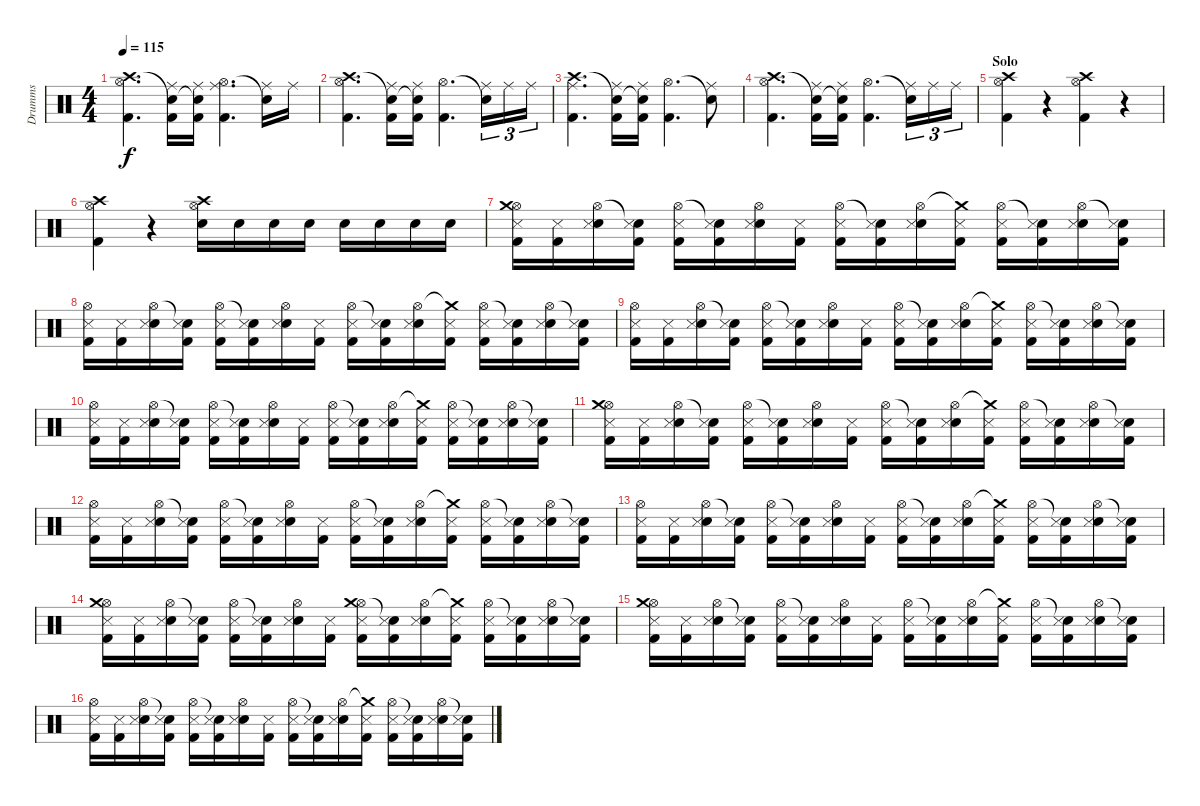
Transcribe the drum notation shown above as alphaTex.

\track ("Drumms" "Drumms") {instrument percussion}
\staff {score}
\articulation defaults
\ts (4 4)
\tempo 115
\clef neutral
\ks c
("Crash high (hit)" "Hi-Hat (open)" "Kick (hit) 2").4{d dy f} ("Snare (hit)"{t} "Kick (hit) 2" "Ride (middle)").16 ("Snare (hit)"{t} "Kick (hit) 2" "Ride (middle)").16 ("Hi-Hat (open)" "Kick (hit) 2" "Ride (middle)").4{d} ("Snare (hit)"{t} "Ride (middle)").16 "Ride (middle)".16 |
("Crash high (hit)" "Hi-Hat (open)" "Kick (hit) 2").4{d} ("Snare (hit)"{t} "Kick (hit) 2" "Ride (middle)").16 ("Snare (hit)"{t} "Kick (hit) 2" "Ride (middle)").16 ("Hi-Hat (open)" "Kick (hit) 2").4{d} ("Snare (hit)"{t} "Ride (middle)").16{tu (3 2)} "Ride (middle)".16{tu (3 2)} "Ride (middle)".16{tu (3 2)} |
("Crash high (hit)" "Ride (middle)" "Kick (hit) 2").4{d} ("Snare (hit)"{t} "Kick (hit) 2" "Ride (middle)").16 ("Snare (hit)"{t} "Kick (hit) 2" "Ride (middle)").16 ("Hi-Hat (open)" "Kick (hit) 2").4{d} ("Snare (hit)"{t} "Ride (middle)").8 |
("Crash high (hit)" "Hi-Hat (open)" "Kick (hit) 2").4{d} ("Snare (hit)"{t} "Kick (hit) 2" "Ride (middle)").16 ("Snare (hit)"{t} "Kick (hit) 2" "Ride (middle)").16 ("Hi-Hat (open)" "Kick (hit) 2").4{d} ("Snare (hit)"{t} "Ride (middle)").16{tu (3 2)} "Ride (middle)".16{tu (3 2)} "Ride (middle)".16{tu (3 2)} |
\section ("" "Solo")
("Hi-Hat (open)" "Crash high (hit)" "Kick (hit) 2").4 r.4 ("Hi-Hat (open)" "Crash high (hit)" "Kick (hit) 2").4 r.4 |
("Crash high (hit)" "Hi-Hat (open)" "Kick (hit) 2").4 r.4 ("Crash high (hit)" "Hi-Hat (open)" "Electric Snare (hit)").16 "Electric Snare (hit)".16 "Electric Snare (hit)".16 "Electric Snare (hit)".16 "Electric Snare (hit)".16 "Electric Snare (hit)".16 "Snare (hit) 2".16 "Snare (hit) 2".16 |
("Hi-Hat (open)" "Crash medium (hit)" "Kick (hit) 2" "Snare (side stick) 3").16 ("Kick (hit) 2" "Snare (side stick) 3").16 ("Hi-Hat (open)" "Electric Snare (hit)" "Snare (side stick) 3").16 ("Snare (hit)"{t} "Kick (hit) 2" "Snare (side stick) 3").16 ("Hi-Hat (open)" "Kick (hit) 2" "Snare (side stick) 3").16 ("Snare (hit)"{t} "Kick (hit) 2" "Snare (side stick) 3").16 ("Hi-Hat (open)" "Electric Snare (hit)" "Snare (side stick) 3").16 ("Kick (hit) 2" "Snare (side stick) 3").16 ("Hi-Hat (open)" "Kick (hit) 2" "Snare (side stick) 3").16 ("Snare (hit)"{t} "Kick (hit) 2" "Snare (side stick) 3").16 ("Hi-Hat (open)" "Electric Snare (hit)" "Snare (side stick) 3").16 ("Crash medium (hit)"{t} "Kick (hit) 2" "Snare (side stick) 3").16 ("Hi-Hat (open)" "Kick (hit) 2" "Snare (side stick) 3").16 ("Snare (hit)"{t} "Kick (hit) 2" "Snare (side stick) 3").16 ("Hi-Hat (open)" "Electric Snare (hit)" "Snare (side stick) 3").16 ("Snare (hit)"{t} "Kick (hit) 2" "Snare (side stick) 3").16 |
("Hi-Hat (open)" "Kick (hit) 2" "Snare (side stick) 3").16 ("Kick (hit) 2" "Snare (side stick) 3").16 ("Hi-Hat (open)" "Electric Snare (hit)" "Snare (side stick) 3").16 ("Snare (hit)"{t} "Kick (hit) 2" "Snare (side stick) 3").16 ("Hi-Hat (open)" "Kick (hit) 2" "Snare (side stick) 3").16 ("Snare (hit)"{t} "Kick (hit) 2" "Snare (side stick) 3").16 ("Hi-Hat (open)" "Electric Snare (hit)" "Snare (side stick) 3").16 ("Kick (hit) 2" "Snare (side stick) 3").16 ("Hi-Hat (open)" "Kick (hit) 2" "Snare (side stick) 3").16 ("Snare (hit)"{t} "Kick (hit) 2" "Snare (side stick) 3").16 ("Hi-Hat (open)" "Electric Snare (hit)" "Snare (side stick) 3").16 ("Crash medium (hit)"{t} "Kick (hit) 2" "Snare (side stick) 3").16 ("Hi-Hat (open)" "Kick (hit) 2" "Snare (side stick) 3").16 ("Snare (hit)"{t} "Kick (hit) 2" "Snare (side stick) 3").16 ("Hi-Hat (open)" "Electric Snare (hit)" "Snare (side stick) 3").16 ("Snare (hit)"{t} "Kick (hit) 2" "Snare (side stick) 3").16 |
("Hi-Hat (open)" "Kick (hit) 2" "Snare (side stick) 3").16 ("Kick (hit) 2" "Snare (side stick) 3").16 ("Hi-Hat (open)" "Electric Snare (hit)" "Snare (side stick) 3").16 ("Snare (hit)"{t} "Kick (hit) 2" "Snare (side stick) 3").16 ("Hi-Hat (open)" "Kick (hit) 2" "Snare (side stick) 3").16 ("Snare (hit)"{t} "Kick (hit) 2" "Snare (side stick) 3").16 ("Hi-Hat (open)" "Electric Snare (hit)" "Snare (side stick) 3").16 ("Kick (hit) 2" "Snare (side stick) 3").16 ("Hi-Hat (open)" "Kick (hit) 2" "Snare (side stick) 3").16 ("Snare (hit)"{t} "Kick (hit) 2" "Snare (side stick) 3").16 ("Hi-Hat (open)" "Electric Snare (hit)" "Snare (side stick) 3").16 ("Crash medium (hit)"{t} "Kick (hit) 2" "Snare (side stick) 3").16 ("Hi-Hat (open)" "Kick (hit) 2" "Snare (side stick) 3").16 ("Snare (hit)"{t} "Kick (hit) 2" "Snare (side stick) 3").16 ("Hi-Hat (open)" "Electric Snare (hit)" "Snare (side stick) 3").16 ("Snare (hit)"{t} "Kick (hit) 2" "Snare (side stick) 3").16 |
("Hi-Hat (open)" "Kick (hit) 2" "Snare (side stick) 3").16 ("Kick (hit) 2" "Snare (side stick) 3").16 ("Hi-Hat (open)" "Electric Snare (hit)" "Snare (side stick) 3").16 ("Snare (hit)"{t} "Kick (hit) 2" "Snare (side stick) 3").16 ("Hi-Hat (open)" "Kick (hit) 2" "Snare (side stick) 3").16 ("Snare (hit)"{t} "Kick (hit) 2" "Snare (side stick) 3").16 ("Hi-Hat (open)" "Electric Snare (hit)" "Snare (side stick) 3").16 ("Kick (hit) 2" "Snare (side stick) 3").16 ("Hi-Hat (open)" "Kick (hit) 2" "Snare (side stick) 3").16 ("Snare (hit)"{t} "Kick (hit) 2" "Snare (side stick) 3").16 ("Hi-Hat (open)" "Electric Snare (hit)" "Snare (side stick) 3").16 ("Crash medium (hit)"{t} "Kick (hit) 2" "Snare (side stick) 3").16 ("Hi-Hat (open)" "Kick (hit) 2" "Snare (side stick) 3").16 ("Snare (hit)"{t} "Kick (hit) 2" "Snare (side stick) 3").16 ("Hi-Hat (open)" "Electric Snare (hit)" "Snare (side stick) 3").16 ("Snare (hit)"{t} "Kick (hit) 2" "Snare (side stick) 3").16 |
("Hi-Hat (open)" "Crash medium (hit)" "Kick (hit) 2" "Snare (side stick) 3").16 ("Kick (hit) 2" "Snare (side stick) 3").16 ("Hi-Hat (open)" "Electric Snare (hit)" "Snare (side stick) 3").16 ("Snare (hit)"{t} "Kick (hit) 2" "Snare (side stick) 3").16 ("Hi-Hat (open)" "Kick (hit) 2" "Snare (side stick) 3").16 ("Snare (hit)"{t} "Kick (hit) 2" "Snare (side stick) 3").16 ("Hi-Hat (open)" "Electric Snare (hit)" "Snare (side stick) 3").16 ("Kick (hit) 2" "Snare (side stick) 3").16 ("Hi-Hat (open)" "Kick (hit) 2" "Snare (side stick) 3").16 ("Snare (hit)"{t} "Kick (hit) 2" "Snare (side stick) 3").16 ("Hi-Hat (open)" "Electric Snare (hit)" "Snare (side stick) 3").16 ("Crash medium (hit)"{t} "Kick (hit) 2" "Snare (side stick) 3").16 ("Hi-Hat (open)" "Kick (hit) 2" "Snare (side stick) 3").16 ("Snare (hit)"{t} "Kick (hit) 2" "Snare (side stick) 3").16 ("Hi-Hat (open)" "Electric Snare (hit)" "Snare (side stick) 3").16 ("Snare (hit)"{t} "Kick (hit) 2" "Snare (side stick) 3").16 |
("Hi-Hat (open)" "Kick (hit) 2" "Snare (side stick) 3").16 ("Kick (hit) 2" "Snare (side stick) 3").16 ("Hi-Hat (open)" "Electric Snare (hit)" "Snare (side stick) 3").16 ("Snare (hit)"{t} "Kick (hit) 2" "Snare (side stick) 3").16 ("Hi-Hat (open)" "Kick (hit) 2" "Snare (side stick) 3").16 ("Snare (hit)"{t} "Kick (hit) 2" "Snare (side stick) 3").16 ("Hi-Hat (open)" "Electric Snare (hit)" "Snare (side stick) 3").16 ("Kick (hit) 2" "Snare (side stick) 3").16 ("Hi-Hat (open)" "Kick (hit) 2" "Snare (side stick) 3").16 ("Snare (hit)"{t} "Kick (hit) 2" "Snare (side stick) 3").16 ("Hi-Hat (open)" "Electric Snare (hit)" "Snare (side stick) 3").16 ("Crash medium (hit)"{t} "Kick (hit) 2" "Snare (side stick) 3").16 ("Hi-Hat (open)" "Kick (hit) 2" "Snare (side stick) 3").16 ("Snare (hit)"{t} "Kick (hit) 2" "Snare (side stick) 3").16 ("Hi-Hat (open)" "Electric Snare (hit)" "Snare (side stick) 3").16 ("Snare (hit)"{t} "Kick (hit) 2" "Snare (side stick) 3").16 |
("Hi-Hat (open)" "Kick (hit) 2" "Snare (side stick) 3").16 ("Kick (hit) 2" "Snare (side stick) 3").16 ("Hi-Hat (open)" "Electric Snare (hit)" "Snare (side stick) 3").16 ("Snare (hit)"{t} "Kick (hit) 2" "Snare (side stick) 3").16 ("Hi-Hat (open)" "Kick (hit) 2" "Snare (side stick) 3").16 ("Snare (hit)"{t} "Kick (hit) 2" "Snare (side stick) 3").16 ("Hi-Hat (open)" "Electric Snare (hit)" "Snare (side stick) 3").16 ("Kick (hit) 2" "Snare (side stick) 3").16 ("Hi-Hat (open)" "Kick (hit) 2" "Snare (side stick) 3").16 ("Snare (hit)"{t} "Kick (hit) 2" "Snare (side stick) 3").16 ("Hi-Hat (open)" "Electric Snare (hit)" "Snare (side stick) 3").16 ("Crash medium (hit)"{t} "Kick (hit) 2" "Snare (side stick) 3").16 ("Hi-Hat (open)" "Kick (hit) 2" "Snare (side stick) 3").16 ("Snare (hit)"{t} "Kick (hit) 2" "Snare (side stick) 3").16 ("Hi-Hat (open)" "Electric Snare (hit)" "Snare (side stick) 3").16 ("Snare (hit)"{t} "Kick (hit) 2" "Snare (side stick) 3").16 |
("Hi-Hat (open)" "Crash medium (hit)" "Kick (hit) 2" "Snare (side stick) 3").16 ("Kick (hit) 2" "Snare (side stick) 3").16 ("Hi-Hat (open)" "Electric Snare (hit)" "Snare (side stick) 3").16 ("Snare (hit)"{t} "Kick (hit) 2" "Snare (side stick) 3").16 ("Hi-Hat (open)" "Kick (hit) 2" "Snare (side stick) 3").16 ("Snare (hit)"{t} "Kick (hit) 2" "Snare (side stick) 3").16 ("Hi-Hat (open)" "Electric Snare (hit)" "Snare (side stick) 3").16 ("Kick (hit) 2" "Snare (side stick) 3").16 ("Hi-Hat (open)" "Crash medium (hit)" "Kick (hit) 2" "Snare (side stick) 3").16 ("Snare (hit)"{t} "Kick (hit) 2" "Snare (side stick) 3").16 ("Hi-Hat (open)" "Electric Snare (hit)" "Snare (side stick) 3").16 ("Crash medium (hit)"{t} "Kick (hit) 2" "Snare (side stick) 3").16 ("Hi-Hat (open)" "Kick (hit) 2" "Snare (side stick) 3").16 ("Snare (hit)"{t} "Kick (hit) 2" "Snare (side stick) 3").16 ("Hi-Hat (open)" "Electric Snare (hit)" "Snare (side stick) 3").16 ("Snare (hit)"{t} "Kick (hit) 2" "Snare (side stick) 3").16 |
("Hi-Hat (open)" "Crash medium (hit)" "Kick (hit) 2" "Snare (side stick) 3").16 ("Kick (hit) 2" "Snare (side stick) 3").16 ("Hi-Hat (open)" "Electric Snare (hit)" "Snare (side stick) 3").16 ("Snare (hit)"{t} "Kick (hit) 2" "Snare (side stick) 3").16 ("Hi-Hat (open)" "Kick (hit) 2" "Snare (side stick) 3").16 ("Snare (hit)"{t} "Kick (hit) 2" "Snare (side stick) 3").16 ("Hi-Hat (open)" "Electric Snare (hit)" "Snare (side stick) 3").16 ("Kick (hit) 2" "Snare (side stick) 3").16 ("Hi-Hat (open)" "Kick (hit) 2" "Snare (side stick) 3").16 ("Snare (hit)"{t} "Kick (hit) 2" "Snare (side stick) 3").16 ("Hi-Hat (open)" "Electric Snare (hit)" "Snare (side stick) 3").16 ("Crash medium (hit)"{t} "Kick (hit) 2" "Snare (side stick) 3").16 ("Hi-Hat (open)" "Kick (hit) 2" "Snare (side stick) 3").16 ("Snare (hit)"{t} "Kick (hit) 2" "Snare (side stick) 3").16 ("Hi-Hat (open)" "Electric Snare (hit)" "Snare (side stick) 3").16 ("Snare (hit)"{t} "Kick (hit) 2" "Snare (side stick) 3").16 |
("Hi-Hat (open)" "Kick (hit) 2" "Snare (side stick) 3").16 ("Kick (hit) 2" "Snare (side stick) 3").16 ("Hi-Hat (open)" "Electric Snare (hit)" "Snare (side stick) 3").16 ("Snare (hit)"{t} "Kick (hit) 2" "Snare (side stick) 3").16 ("Hi-Hat (open)" "Kick (hit) 2" "Snare (side stick) 3").16 ("Snare (hit)"{t} "Kick (hit) 2" "Snare (side stick) 3").16 ("Hi-Hat (open)" "Electric Snare (hit)" "Snare (side stick) 3").16 ("Kick (hit) 2" "Snare (side stick) 3").16 ("Hi-Hat (open)" "Kick (hit) 2" "Snare (side stick) 3").16 ("Snare (hit)"{t} "Kick (hit) 2" "Snare (side stick) 3").16 ("Hi-Hat (open)" "Electric Snare (hit)" "Snare (side stick) 3").16 ("Crash medium (hit)"{t} "Kick (hit) 2" "Snare (side stick) 3").16 ("Hi-Hat (open)" "Kick (hit) 2" "Snare (side stick) 3").16 ("Snare (hit)"{t} "Kick (hit) 2" "Snare (side stick) 3").16 ("Hi-Hat (open)" "Electric Snare (hit)" "Snare (side stick) 3").16 ("Snare (hit)"{t} "Kick (hit) 2" "Snare (side stick) 3").16
